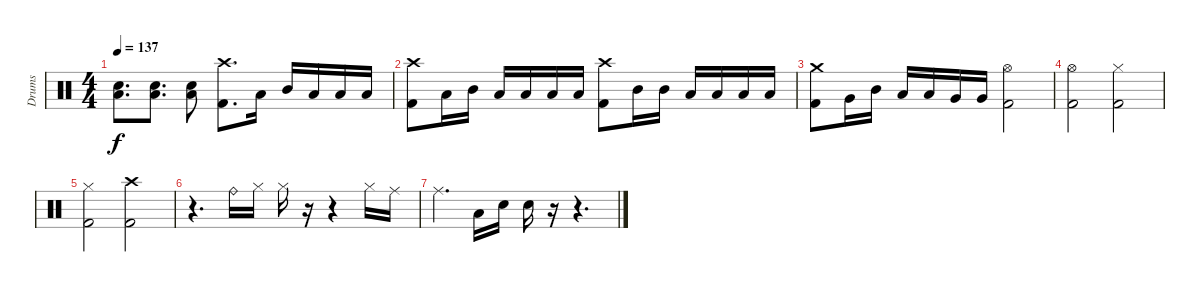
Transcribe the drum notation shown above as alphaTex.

\track ("Drums" "Drums") {instrument percussion}
\staff {score}
\articulation defaults
\ts (4 4)
\tempo 137
\clef neutral
\ks c
("Low Tom (hit)" "Electric Snare (hit)").8{d dy f} ("Low Tom (hit)" "Electric Snare (hit)").8{d} ("Low Tom (hit)" "Electric Snare (hit)").8 ("Crash high (hit)" "Kick (hit) 2").8{d} "Low Tom (hit)".16 "Mid Tom (hit)".16 "Low Tom (hit)".16 "Low Tom (hit)".16 "Low Tom (hit)".16 |
("Crash high (hit)" "Kick (hit) 2").8 "Low Tom (hit)".16 "Mid Tom (hit)".16 "Low Tom (hit)".16 "Low Tom (hit)".16 "Low Tom (hit)".16 "Low Tom (hit)".16 ("Crash high (hit)" "Kick (hit) 2").8 "Mid Tom (hit)".16 "Mid Tom (hit)".16 "Low Tom (hit)".16 "Low Tom (hit)".16 "Low Tom (hit)".16 "Low Tom (hit)".16 |
("Crash medium (hit)" "Kick (hit) 2").8 "Very Low Tom (hit)".16 "Mid Tom (hit)".16 "Low Tom (hit)".16 "Low Tom (hit)".16 "Very Low Tom (hit)".16 "Very Low Tom (hit)".16 ("Hi-Hat (open)" "Kick (hit) 2").2 |
("Hi-Hat (open)" "Kick (hit) 2").2 ("Hi-Hat (closed)" "Kick (hit) 2").2 |
("Hi-Hat (closed)" "Kick (hit) 2").2 ("Crash high (hit)" "Kick (hit) 2").2 |
r.4{d} "Ride (bell)".16 "Hi-Hat (closed)".16 "Hi-Hat (closed)".16 r.16 r.4 "Hi-Hat (closed)".16 "Ride (middle)".16 |
"Ride (middle)".4{d} "Low Tom (hit)".16 "Snare (hit) 2".16 "Snare (hit) 2".16 r.16 r.4{d}
